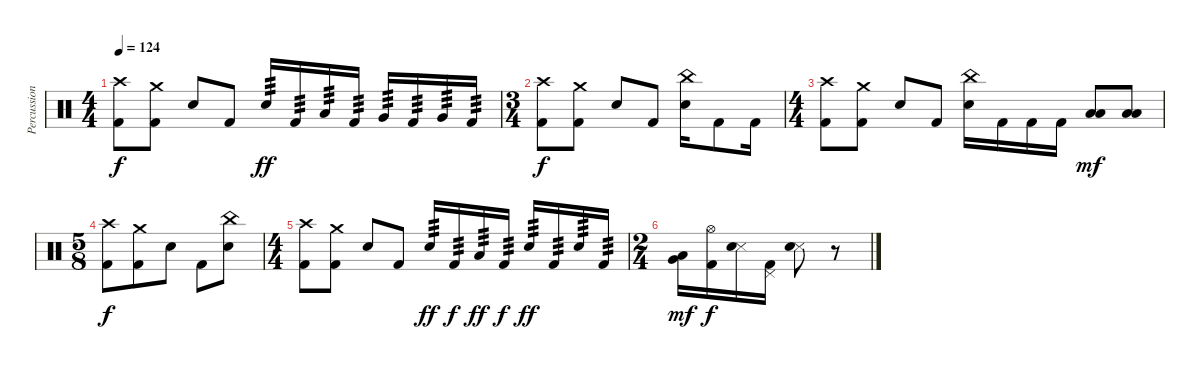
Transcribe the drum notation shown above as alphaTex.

\track ("Percussion" "Percussion") {instrument percussion}
\staff {score}
\articulation defaults
\ts (4 4)
\tempo 124
\clef neutral
\ks c
("Crash high (hit)" "Kick (hit) 2").8{dy f} ("Crash medium (hit)" "Kick (hit) 2").8 "Snare (hit)".8 "Kick (hit) 2".8 "Snare (hit) 2".16{tp 3 dy ff} "Kick (hit) 2".16{tp 3} "Low Tom (hit)".16{tp 3} "Kick (hit) 2".16{tp 3} "Very Low Tom (hit)".16{tp 3} "Kick (hit) 2".16{tp 3} "Very Low Tom (hit)".16{tp 3} "Kick (hit) 2".16{tp 3} |
\ts (3 4)
("Crash high (hit)" "Kick (hit) 2").8{dy f} ("Crash medium (hit)" "Kick (hit) 2").8 "Snare (hit)".8 "Kick (hit) 2".8 ("China (hit)" "Snare (hit) 2").16 "Kick (hit) 2".8 "Kick (hit) 2".16 |
\ts (4 4)
("Crash high (hit)" "Kick (hit) 2").8 ("Crash medium (hit)" "Kick (hit) 2").8 "Snare (hit)".8 "Kick (hit) 2".8 ("China (hit)" "Snare (hit) 2").16 "Kick (hit) 2".16 "Kick (hit) 2".16 "Kick (hit) 2".16 ("Low Tom (hit)" "Low Tom (hit)").8{bu 60 dy mf} ("Low Tom (hit)" "Low Tom (hit)").8{bu 60} |
\ts (5 8)
("Crash high (hit)" "Kick (hit) 2").8{dy f} ("Crash medium (hit)" "Kick (hit) 2").8 "Snare (hit)".8 "Kick (hit) 2".8 ("China (hit)" "Snare (hit) 2").8 |
\ts (4 4)
("Crash high (hit)" "Kick (hit) 2").8 ("Crash medium (hit)" "Kick (hit) 2").8 "Snare (hit)".8 "Kick (hit) 2".8 "Snare (hit) 2".16{tp 3 dy ff} "Kick (hit) 2".16{tp 3 dy f} "Low Tom (hit)".16{tp 3 dy ff} "Kick (hit) 2".16{tp 3 dy f} "Snare (hit) 2".16{tp 3 dy ff} "Kick (hit) 2".16{tp 3} "Snare (hit) 2".16{tp 3} "Kick (hit) 2".16{tp 3} |
\ts (2 4)
("Low Tom (hit)" "Very Low Tom (hit)").16{bu 60 dy mf} ("Hi-Hat (open)" "Kick (hit) 2").16{dy f} ("Metronome (hit)" "Snare (hit) 2").16{bu 60} ("Pedal Hi-Hat (hit)" "Kick (hit) 2").16 ("Metronome (hit)" "Snare (hit) 2").8{bu 60} r.8
